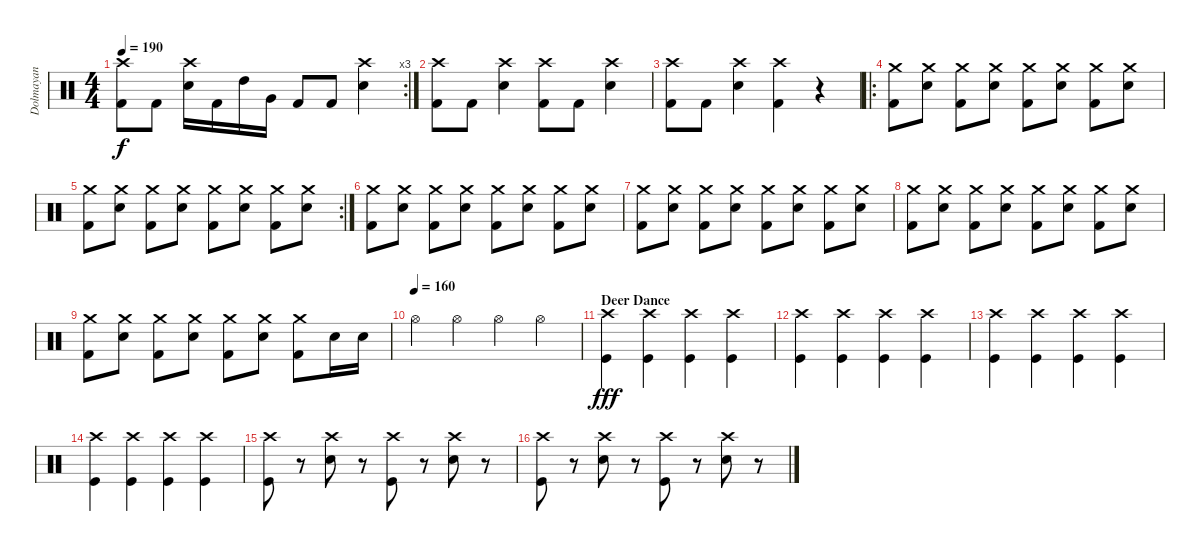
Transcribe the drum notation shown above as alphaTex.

\track ("Dolmayan" "Dolmayan") {instrument percussion}
\staff {score}
\articulation defaults
\rc 3
\ts (4 4)
\tempo 190
\clef neutral
\ks c
("Crash high (hit)" "Kick (hit) 2").8{dy f} "Kick (hit) 2".8 ("Crash high (hit)" "Electric Snare (hit)").16 "Kick (hit) 2".16 "High Tom (hit)".16 "Very Low Tom (hit)".16 "Kick (hit) 2".8 "Kick (hit) 2".8 ("Crash high (hit)" "Electric Snare (hit)").4 |
("Crash high (hit)" "Kick (hit) 2").8 "Kick (hit) 2".8 ("Crash high (hit)" "Electric Snare (hit)").4 ("Crash high (hit)" "Kick (hit) 2").8 "Kick (hit) 2".8 ("Crash high (hit)" "Electric Snare (hit)").4 |
("Crash high (hit)" "Kick (hit) 2").8 "Kick (hit) 2".8 ("Crash high (hit)" "Electric Snare (hit)").4 ("Crash high (hit)" "Kick (hit) 2").4 r.4 |
\ro
("Kick (hit) 2" "Crash medium (hit)").8 ("Electric Snare (hit)" "Crash medium (hit)").8 ("Kick (hit) 2" "Crash medium (hit)").8 ("Electric Snare (hit)" "Crash medium (hit)").8 ("Kick (hit) 2" "Crash medium (hit)").8 ("Electric Snare (hit)" "Crash medium (hit)").8 ("Kick (hit) 2" "Crash medium (hit)").8 ("Electric Snare (hit)" "Crash medium (hit)").8 |
\rc 2
("Kick (hit) 2" "Crash medium (hit)").8 ("Electric Snare (hit)" "Crash medium (hit)").8 ("Kick (hit) 2" "Crash medium (hit)").8 ("Electric Snare (hit)" "Crash medium (hit)").8 ("Kick (hit) 2" "Crash medium (hit)").8 ("Electric Snare (hit)" "Crash medium (hit)").8 ("Kick (hit) 2" "Crash medium (hit)").8 ("Electric Snare (hit)" "Crash medium (hit)").8 |
("Kick (hit) 2" "Crash medium (hit)").8 ("Electric Snare (hit)" "Crash medium (hit)").8 ("Kick (hit) 2" "Crash medium (hit)").8 ("Electric Snare (hit)" "Crash medium (hit)").8 ("Kick (hit) 2" "Crash medium (hit)").8 ("Electric Snare (hit)" "Crash medium (hit)").8 ("Kick (hit) 2" "Crash medium (hit)").8 ("Electric Snare (hit)" "Crash medium (hit)").8 |
("Kick (hit) 2" "Crash medium (hit)").8 ("Electric Snare (hit)" "Crash medium (hit)").8 ("Kick (hit) 2" "Crash medium (hit)").8 ("Electric Snare (hit)" "Crash medium (hit)").8 ("Kick (hit) 2" "Crash medium (hit)").8 ("Electric Snare (hit)" "Crash medium (hit)").8 ("Kick (hit) 2" "Crash medium (hit)").8 ("Electric Snare (hit)" "Crash medium (hit)").8 |
("Kick (hit) 2" "Crash medium (hit)").8 ("Electric Snare (hit)" "Crash medium (hit)").8 ("Kick (hit) 2" "Crash medium (hit)").8 ("Electric Snare (hit)" "Crash medium (hit)").8 ("Kick (hit) 2" "Crash medium (hit)").8 ("Electric Snare (hit)" "Crash medium (hit)").8 ("Kick (hit) 2" "Crash medium (hit)").8 ("Electric Snare (hit)" "Crash medium (hit)").8 |
("Kick (hit) 2" "Crash medium (hit)").8 ("Electric Snare (hit)" "Crash medium (hit)").8 ("Kick (hit) 2" "Crash medium (hit)").8 ("Electric Snare (hit)" "Crash medium (hit)").8 ("Kick (hit) 2" "Crash medium (hit)").8 ("Electric Snare (hit)" "Crash medium (hit)").8 ("Kick (hit) 2" "Crash medium (hit)").8 "Electric Snare (hit)".16 "Electric Snare (hit)".16 |
\tempo (160)
"Hi-Hat (open)".4 "Hi-Hat (open)".4 "Hi-Hat (open)".4 "Hi-Hat (open)".4 |
\section ("" "Deer Dance")
("Crash high (hit)" "Kick (hit)").4{dy fff} ("Crash high (hit)" "Kick (hit)").4 ("Crash high (hit)" "Kick (hit)").4 ("Crash high (hit)" "Kick (hit)").4 |
("Crash high (hit)" "Kick (hit)").4 ("Crash high (hit)" "Kick (hit)").4 ("Crash high (hit)" "Kick (hit)").4 ("Crash high (hit)" "Kick (hit)").4 |
("Crash high (hit)" "Kick (hit)").4 ("Crash high (hit)" "Kick (hit)").4 ("Crash high (hit)" "Kick (hit)").4 ("Crash high (hit)" "Kick (hit)").4 |
("Crash high (hit)" "Kick (hit)").4 ("Crash high (hit)" "Kick (hit)").4 ("Crash high (hit)" "Kick (hit)").4 ("Crash high (hit)" "Kick (hit)").4 |
("Crash high (hit)" "Kick (hit)").8 r.8 ("Crash high (hit)" "Electric Snare (hit)").8 r.8 ("Crash high (hit)" "Kick (hit)").8 r.8 ("Crash high (hit)" "Electric Snare (hit)").8 r.8 |
("Crash high (hit)" "Kick (hit)").8 r.8 ("Crash high (hit)" "Electric Snare (hit)").8 r.8 ("Crash high (hit)" "Kick (hit)").8 r.8 ("Crash high (hit)" "Electric Snare (hit)").8 r.8
